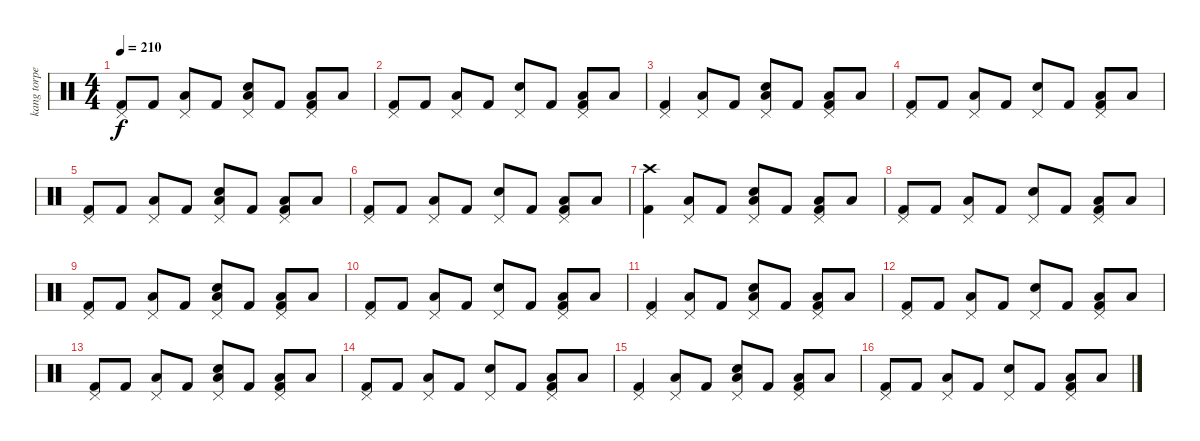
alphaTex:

\track ("kang torpey" "kang torpe") {instrument percussion}
\staff {score}
\articulation defaults
\ts (4 4)
\tempo 210
\clef neutral
\ks c
("Pedal Hi-Hat (hit)" "Kick (hit) 2").8{dy f} "Kick (hit) 2".8 ("Pedal Hi-Hat (hit)" "Low Floor Tom (hit)").8 "Kick (hit) 2".8 ("Pedal Hi-Hat (hit)" "Low Floor Tom (hit)" "Electric Snare (hit)").8 "Kick (hit) 2".8 ("Pedal Hi-Hat (hit)" "Low Floor Tom (hit)" "Kick (hit) 2").8 "Low Floor Tom (hit)".8 |
("Pedal Hi-Hat (hit)" "Kick (hit) 2").8 "Kick (hit) 2".8 ("Pedal Hi-Hat (hit)" "Low Floor Tom (hit)").8 "Kick (hit) 2".8 ("Pedal Hi-Hat (hit)" "Electric Snare (hit)").8 "Kick (hit) 2".8 ("Pedal Hi-Hat (hit)" "Low Floor Tom (hit)" "Kick (hit) 2").8 "Low Floor Tom (hit)".8 |
("Pedal Hi-Hat (hit)" "Kick (hit) 2").4 ("Pedal Hi-Hat (hit)" "Low Floor Tom (hit)").8 "Kick (hit) 2".8 ("Pedal Hi-Hat (hit)" "Low Floor Tom (hit)" "Electric Snare (hit)").8 "Kick (hit) 2".8 ("Pedal Hi-Hat (hit)" "Low Floor Tom (hit)" "Kick (hit) 2").8 "Low Floor Tom (hit)".8 |
("Pedal Hi-Hat (hit)" "Kick (hit) 2").8 "Kick (hit) 2".8 ("Pedal Hi-Hat (hit)" "Low Floor Tom (hit)").8 "Kick (hit) 2".8 ("Pedal Hi-Hat (hit)" "Electric Snare (hit)").8 "Kick (hit) 2".8 ("Pedal Hi-Hat (hit)" "Low Floor Tom (hit)" "Kick (hit) 2").8 "Low Floor Tom (hit)".8 |
("Pedal Hi-Hat (hit)" "Kick (hit) 2").8 "Kick (hit) 2".8 ("Pedal Hi-Hat (hit)" "Low Floor Tom (hit)").8 "Kick (hit) 2".8 ("Pedal Hi-Hat (hit)" "Low Floor Tom (hit)" "Electric Snare (hit)").8 "Kick (hit) 2".8 ("Pedal Hi-Hat (hit)" "Low Floor Tom (hit)" "Kick (hit) 2").8 "Low Floor Tom (hit)".8 |
("Pedal Hi-Hat (hit)" "Kick (hit) 2").8 "Kick (hit) 2".8 ("Pedal Hi-Hat (hit)" "Low Floor Tom (hit)").8 "Kick (hit) 2".8 ("Pedal Hi-Hat (hit)" "Electric Snare (hit)").8 "Kick (hit) 2".8 ("Pedal Hi-Hat (hit)" "Low Floor Tom (hit)" "Kick (hit) 2").8 "Low Floor Tom (hit)".8 |
("Crash high (hit)" "Kick (hit) 2").4 ("Pedal Hi-Hat (hit)" "Low Floor Tom (hit)").8 "Kick (hit) 2".8 ("Pedal Hi-Hat (hit)" "Low Floor Tom (hit)" "Electric Snare (hit)").8 "Kick (hit) 2".8 ("Pedal Hi-Hat (hit)" "Low Floor Tom (hit)" "Kick (hit) 2").8 "Low Floor Tom (hit)".8 |
("Pedal Hi-Hat (hit)" "Kick (hit) 2").8 "Kick (hit) 2".8 ("Pedal Hi-Hat (hit)" "Low Floor Tom (hit)").8 "Kick (hit) 2".8 ("Pedal Hi-Hat (hit)" "Electric Snare (hit)").8 "Kick (hit) 2".8 ("Pedal Hi-Hat (hit)" "Low Floor Tom (hit)" "Kick (hit) 2").8 "Low Floor Tom (hit)".8 |
("Pedal Hi-Hat (hit)" "Kick (hit) 2").8 "Kick (hit) 2".8 ("Pedal Hi-Hat (hit)" "Low Floor Tom (hit)").8 "Kick (hit) 2".8 ("Pedal Hi-Hat (hit)" "Low Floor Tom (hit)" "Electric Snare (hit)").8 "Kick (hit) 2".8 ("Pedal Hi-Hat (hit)" "Low Floor Tom (hit)" "Kick (hit) 2").8 "Low Floor Tom (hit)".8 |
("Pedal Hi-Hat (hit)" "Kick (hit) 2").8 "Kick (hit) 2".8 ("Pedal Hi-Hat (hit)" "Low Floor Tom (hit)").8 "Kick (hit) 2".8 ("Pedal Hi-Hat (hit)" "Electric Snare (hit)").8 "Kick (hit) 2".8 ("Pedal Hi-Hat (hit)" "Low Floor Tom (hit)" "Kick (hit) 2").8 "Low Floor Tom (hit)".8 |
("Pedal Hi-Hat (hit)" "Kick (hit) 2").4 ("Pedal Hi-Hat (hit)" "Low Floor Tom (hit)").8 "Kick (hit) 2".8 ("Pedal Hi-Hat (hit)" "Low Floor Tom (hit)" "Electric Snare (hit)").8 "Kick (hit) 2".8 ("Pedal Hi-Hat (hit)" "Low Floor Tom (hit)" "Kick (hit) 2").8 "Low Floor Tom (hit)".8 |
("Pedal Hi-Hat (hit)" "Kick (hit) 2").8 "Kick (hit) 2".8 ("Pedal Hi-Hat (hit)" "Low Floor Tom (hit)").8 "Kick (hit) 2".8 ("Pedal Hi-Hat (hit)" "Electric Snare (hit)").8 "Kick (hit) 2".8 ("Pedal Hi-Hat (hit)" "Low Floor Tom (hit)" "Kick (hit) 2").8 "Low Floor Tom (hit)".8 |
("Pedal Hi-Hat (hit)" "Kick (hit) 2").8 "Kick (hit) 2".8 ("Pedal Hi-Hat (hit)" "Low Floor Tom (hit)").8 "Kick (hit) 2".8 ("Pedal Hi-Hat (hit)" "Low Floor Tom (hit)" "Electric Snare (hit)").8 "Kick (hit) 2".8 ("Pedal Hi-Hat (hit)" "Low Floor Tom (hit)" "Kick (hit) 2").8 "Low Floor Tom (hit)".8 |
("Pedal Hi-Hat (hit)" "Kick (hit) 2").8 "Kick (hit) 2".8 ("Pedal Hi-Hat (hit)" "Low Floor Tom (hit)").8 "Kick (hit) 2".8 ("Pedal Hi-Hat (hit)" "Electric Snare (hit)").8 "Kick (hit) 2".8 ("Pedal Hi-Hat (hit)" "Low Floor Tom (hit)" "Kick (hit) 2").8 "Low Floor Tom (hit)".8 |
("Pedal Hi-Hat (hit)" "Kick (hit) 2").4 ("Pedal Hi-Hat (hit)" "Low Floor Tom (hit)").8 "Kick (hit) 2".8 ("Pedal Hi-Hat (hit)" "Low Floor Tom (hit)" "Electric Snare (hit)").8 "Kick (hit) 2".8 ("Pedal Hi-Hat (hit)" "Low Floor Tom (hit)" "Kick (hit) 2").8 "Low Floor Tom (hit)".8 |
("Pedal Hi-Hat (hit)" "Kick (hit) 2").8 "Kick (hit) 2".8 ("Pedal Hi-Hat (hit)" "Low Floor Tom (hit)").8 "Kick (hit) 2".8 ("Pedal Hi-Hat (hit)" "Electric Snare (hit)").8 "Kick (hit) 2".8 ("Pedal Hi-Hat (hit)" "Low Floor Tom (hit)" "Kick (hit) 2").8 "Low Floor Tom (hit)".8
